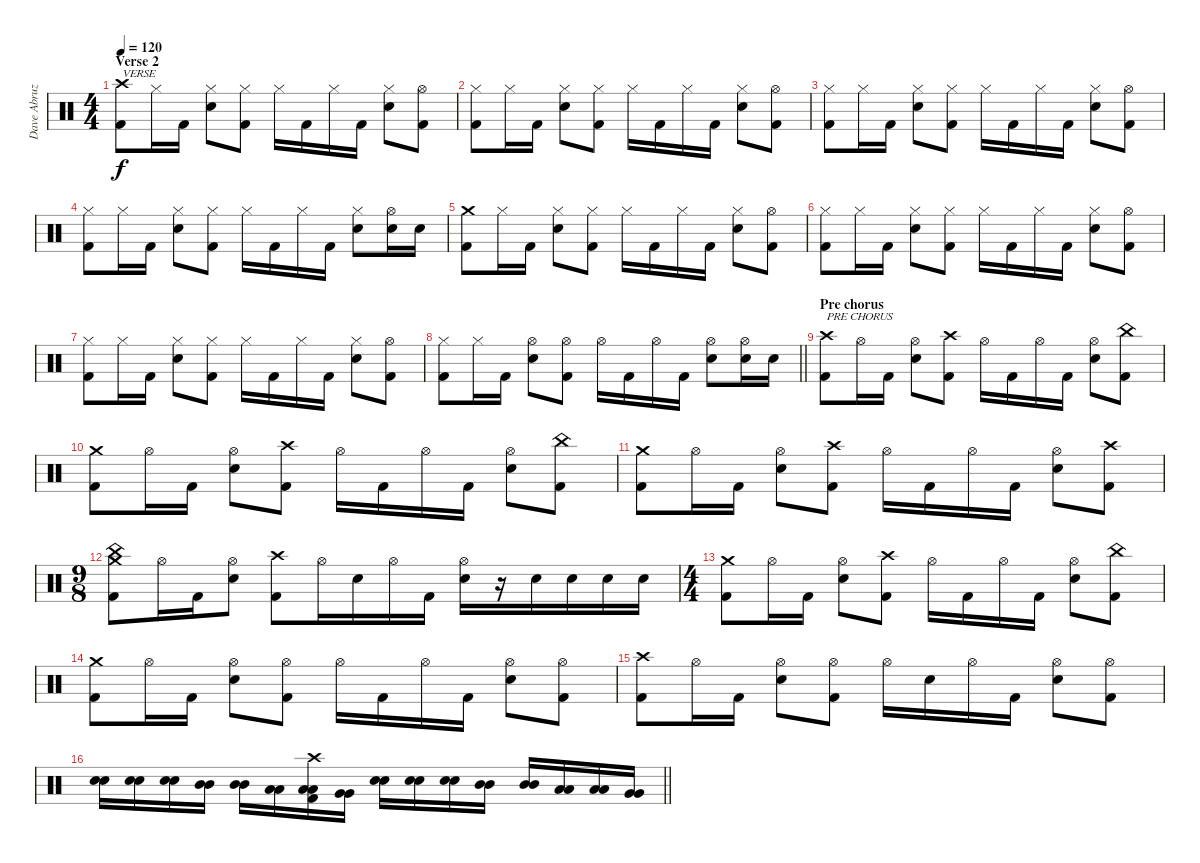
\track ("Dave Abruzzesse" "Dave Abruz") {instrument percussion}
\staff {score}
\articulation defaults
\ts (4 4)
\section ("" "Verse 2")
\tempo 120
\clef neutral
\ks c
("Crash high (hit)" "Kick (hit) 2").8{txt "VERSE" dy f} "Hi-Hat (closed)".16 "Kick (hit) 2".16 ("Hi-Hat (closed)" "Electric Snare (hit)").8 ("Hi-Hat (closed)" "Kick (hit) 2").8 "Hi-Hat (closed)".16 "Kick (hit) 2".16 "Hi-Hat (closed)".16 "Kick (hit) 2".16 ("Hi-Hat (closed)" "Electric Snare (hit)").8 ("Hi-Hat (open)" "Kick (hit) 2").8 |
("Hi-Hat (closed)" "Kick (hit) 2").8 "Hi-Hat (closed)".16 "Kick (hit) 2".16 ("Hi-Hat (closed)" "Electric Snare (hit)").8 ("Hi-Hat (closed)" "Kick (hit) 2").8 "Hi-Hat (closed)".16 "Kick (hit) 2".16 "Hi-Hat (closed)".16 "Kick (hit) 2".16 ("Hi-Hat (closed)" "Electric Snare (hit)").8 ("Hi-Hat (open)" "Kick (hit) 2").8 |
("Hi-Hat (closed)" "Kick (hit) 2").8 "Hi-Hat (closed)".16 "Kick (hit) 2".16 ("Hi-Hat (closed)" "Electric Snare (hit)").8 ("Hi-Hat (closed)" "Kick (hit) 2").8 "Hi-Hat (closed)".16 "Kick (hit) 2".16 "Hi-Hat (closed)".16 "Kick (hit) 2".16 ("Hi-Hat (closed)" "Electric Snare (hit)").8 ("Hi-Hat (open)" "Kick (hit) 2").8 |
("Hi-Hat (closed)" "Kick (hit) 2").8 "Hi-Hat (closed)".16 "Kick (hit) 2".16 ("Hi-Hat (closed)" "Electric Snare (hit)").8 ("Hi-Hat (closed)" "Kick (hit) 2").8 "Hi-Hat (closed)".16 "Kick (hit) 2".16 "Hi-Hat (closed)".16 "Kick (hit) 2".16 ("Hi-Hat (closed)" "Electric Snare (hit)").8 ("Hi-Hat (open)" "Electric Snare (hit)").16 "Electric Snare (hit)".16 |
("Crash medium (hit)" "Kick (hit) 2").8 "Hi-Hat (closed)".16 "Kick (hit) 2".16 ("Hi-Hat (closed)" "Electric Snare (hit)").8 ("Hi-Hat (closed)" "Kick (hit) 2").8 "Hi-Hat (closed)".16 "Kick (hit) 2".16 "Hi-Hat (closed)".16 "Kick (hit) 2".16 ("Hi-Hat (closed)" "Electric Snare (hit)").8 ("Hi-Hat (open)" "Kick (hit) 2").8 |
("Hi-Hat (closed)" "Kick (hit) 2").8 "Hi-Hat (closed)".16 "Kick (hit) 2".16 ("Hi-Hat (closed)" "Electric Snare (hit)").8 ("Hi-Hat (closed)" "Kick (hit) 2").8 "Hi-Hat (closed)".16 "Kick (hit) 2".16 "Hi-Hat (closed)".16 "Kick (hit) 2".16 ("Hi-Hat (closed)" "Electric Snare (hit)").8 ("Hi-Hat (open)" "Kick (hit) 2").8 |
("Hi-Hat (closed)" "Kick (hit) 2").8 "Hi-Hat (closed)".16 "Kick (hit) 2".16 ("Hi-Hat (closed)" "Electric Snare (hit)").8 ("Hi-Hat (closed)" "Kick (hit) 2").8 "Hi-Hat (closed)".16 "Kick (hit) 2".16 "Hi-Hat (closed)".16 "Kick (hit) 2".16 ("Hi-Hat (closed)" "Electric Snare (hit)").8 ("Hi-Hat (open)" "Kick (hit) 2").8 |
\barLineRight lightlight
("Hi-Hat (closed)" "Kick (hit) 2").8 "Hi-Hat (closed)".16 "Kick (hit) 2".16 ("Hi-Hat (open)" "Electric Snare (hit)").8 ("Hi-Hat (open)" "Kick (hit) 2").8 "Hi-Hat (open)".16 "Kick (hit) 2".16 "Hi-Hat (open)".16 "Kick (hit) 2".16 ("Hi-Hat (open)" "Electric Snare (hit)").8 ("Hi-Hat (open)" "Electric Snare (hit)").16 "Electric Snare (hit)".16 |
\section ("" "Pre chorus")
("Crash high (hit)" "Kick (hit) 2").8{txt "PRE CHORUS"} "Hi-Hat (open)".16 "Kick (hit) 2".16 ("Hi-Hat (open)" "Electric Snare (hit)").8 ("Crash high (hit)" "Kick (hit) 2").8 "Hi-Hat (open)".16 "Kick (hit) 2".16 "Hi-Hat (open)".16 "Kick (hit) 2".16 ("Hi-Hat (open)" "Electric Snare (hit)").8 ("China (hit)" "Kick (hit) 2").8 |
("Crash medium (hit)" "Kick (hit) 2").8 "Hi-Hat (open)".16 "Kick (hit) 2".16 ("Hi-Hat (open)" "Electric Snare (hit)").8 ("Crash high (hit)" "Kick (hit) 2").8 "Hi-Hat (open)".16 "Kick (hit) 2".16 "Hi-Hat (open)".16 "Kick (hit) 2".16 ("Hi-Hat (open)" "Electric Snare (hit)").8 ("China (hit)" "Kick (hit) 2").8 |
("Crash medium (hit)" "Kick (hit) 2").8 "Hi-Hat (open)".16 "Kick (hit) 2".16 ("Hi-Hat (open)" "Electric Snare (hit)").8 ("Crash high (hit)" "Kick (hit) 2").8 "Hi-Hat (open)".16 "Kick (hit) 2".16 "Hi-Hat (open)".16 "Kick (hit) 2".16 ("Hi-Hat (open)" "Electric Snare (hit)").8 ("Crash high (hit)" "Kick (hit) 2").8 |
\ts (9 8)
("China (hit)" "Crash medium (hit)" "Kick (hit) 2").8 "Hi-Hat (open)".16 "Kick (hit) 2".16 ("Hi-Hat (open)" "Electric Snare (hit)").8 ("Crash high (hit)" "Kick (hit) 2").8 "Hi-Hat (open)".16 "Electric Snare (hit)".16 "Hi-Hat (open)".16 "Kick (hit) 2".16 ("Hi-Hat (open)" "Electric Snare (hit)").16 r.16 "Electric Snare (hit)".16 "Electric Snare (hit)".16 "Electric Snare (hit)".16 "Electric Snare (hit)".16 |
\ts (4 4)
("Crash medium (hit)" "Kick (hit) 2").8 "Hi-Hat (open)".16 "Kick (hit) 2".16 ("Hi-Hat (open)" "Electric Snare (hit)").8 ("Crash high (hit)" "Kick (hit) 2").8 "Hi-Hat (open)".16 "Kick (hit) 2".16 "Hi-Hat (open)".16 "Kick (hit) 2".16 ("Hi-Hat (open)" "Electric Snare (hit)").8 ("China (hit)" "Kick (hit) 2").8 |
("Crash medium (hit)" "Kick (hit) 2").8 "Hi-Hat (open)".16 "Kick (hit) 2".16 ("Hi-Hat (open)" "Electric Snare (hit)").8 ("Hi-Hat (open)" "Kick (hit) 2").8 "Hi-Hat (open)".16 "Kick (hit) 2".16 "Hi-Hat (open)".16 "Kick (hit) 2".16 ("Hi-Hat (open)" "Electric Snare (hit)").8 ("Hi-Hat (open)" "Kick (hit) 2").8 |
("Crash high (hit)" "Kick (hit) 2").8 "Hi-Hat (open)".16 "Kick (hit) 2".16 ("Hi-Hat (open)" "Electric Snare (hit)").8 ("Hi-Hat (open)" "Kick (hit) 2").8 "Hi-Hat (open)".16 "Electric Snare (hit)".16 "Hi-Hat (open)".16 "Kick (hit) 2".16 ("Hi-Hat (open)" "Electric Snare (hit)").8 ("Hi-Hat (open)" "Kick (hit) 2").8 |
\barLineRight lightlight
("Electric Snare (hit)" "Electric Snare (hit)").16 ("Electric Snare (hit)" "Electric Snare (hit)").16 ("Electric Snare (hit)" "Electric Snare (hit)").16 ("Mid Tom (hit)" "Mid Tom (hit)").16 ("Mid Tom (hit)" "Mid Tom (hit)").16 ("Low Tom (hit)" "Low Tom (hit)").16 ("Crash high (hit)" "Kick (hit) 2" "Low Tom (hit)" "Low Tom (hit)").16 ("Very Low Tom (hit)" "Very Low Tom (hit)").16 ("Electric Snare (hit)" "Electric Snare (hit)").16 ("Electric Snare (hit)" "Electric Snare (hit)").16 ("Electric Snare (hit)" "Electric Snare (hit)").16 ("Mid Tom (hit)" "Mid Tom (hit)").16 ("Mid Tom (hit)" "Mid Tom (hit)").16 ("Low Tom (hit)" "Low Tom (hit)").16 ("Low Tom (hit)" "Low Tom (hit)").16 ("Very Low Tom (hit)" "Very Low Tom (hit)").16
